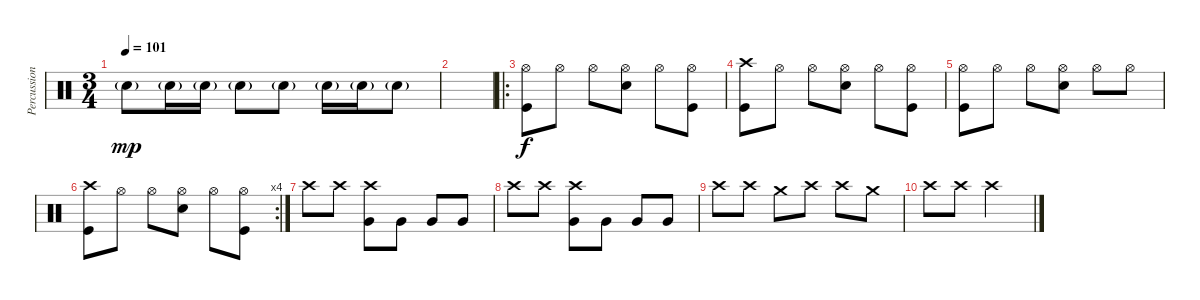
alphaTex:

\track ("Percussion" "Percussion") {instrument percussion}
\staff {score}
\articulation defaults
\ts (3 4)
\tempo 101
\clef neutral
\ks c "Snare (hit) 2"{g}.8{dy mp} "Snare (hit) 2"{g}.16 "Snare (hit) 2"{g}.16 "Snare (hit) 2"{g}.8 "Snare (hit) 2"{g}.8 "Snare (hit) 2"{g}.16 "Snare (hit) 2"{g}.16 "Snare (hit) 2"{g}.8
|
|
\ro
("Hi-Hat (open)" "Kick (hit)").8{dy f} "Hi-Hat (open)".8 "Hi-Hat (open)".8 ("Hi-Hat (open)" "Snare (hit) 2").8 "Hi-Hat (open)".8 ("Hi-Hat (open)" "Kick (hit)").8 |
("Crash high (hit)" "Kick (hit)").8 "Hi-Hat (open)".8 "Hi-Hat (open)".8 ("Hi-Hat (open)" "Snare (hit) 2").8 "Hi-Hat (open)".8 ("Hi-Hat (open)" "Kick (hit)").8 |
("Hi-Hat (open)" "Kick (hit)").8 "Hi-Hat (open)".8 "Hi-Hat (open)".8 ("Hi-Hat (open)" "Snare (hit) 2").8 "Hi-Hat (open)".8 "Hi-Hat (open)".8 |
\rc 4
("Crash high (hit)" "Kick (hit)").8 "Hi-Hat (open)".8 "Hi-Hat (open)".8 ("Hi-Hat (open)" "Snare (hit) 2").8 "Hi-Hat (open)".8 ("Hi-Hat (open)" "Kick (hit)").8 |
"Crash high (hit)".8 "Crash high (hit)".8 ("Crash high (hit)" "Very Low Tom (hit)").8 "Very Low Tom (hit)".8 "Very Low Tom (hit)".8 "Very Low Tom (hit)".8 |
"Crash high (hit)".8 "Crash high (hit)".8 ("Crash high (hit)" "Very Low Tom (hit)").8 "Very Low Tom (hit)".8 "Very Low Tom (hit)".8 "Very Low Tom (hit)".8 |
"Crash high (hit)".8 "Crash high (hit)".8 "Crash medium (hit)".8 "Crash high (hit)".8 "Crash high (hit)".8 "Crash medium (hit)".8 |
"Crash high (hit)".8 "Crash high (hit)".8 "Crash high (hit)".2
